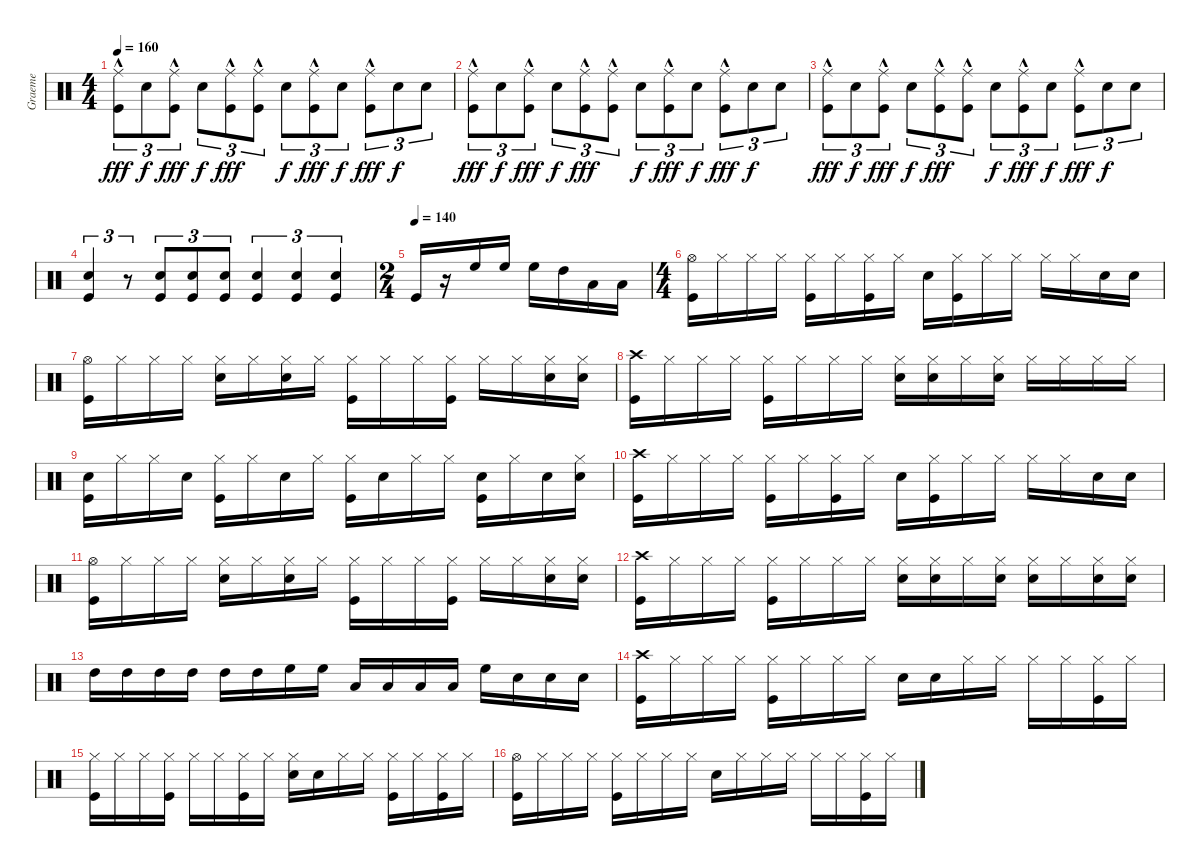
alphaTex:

\track ("Graeme" "Graeme") {instrument percussion}
\staff {score}
\articulation defaults
\ts (4 4)
\tempo 160
\clef neutral
\ks c
("Ride (middle)"{hac} "Kick (hit)").8{tu (3 2) dy fff} "Snare (hit) 2".8{tu (3 2) dy f} ("Ride (middle)"{hac} "Kick (hit)").8{tu (3 2) dy fff} "Snare (hit) 2".8{tu (3 2) dy f} ("Ride (middle)"{hac} "Kick (hit)").8{tu (3 2) dy fff} ("Ride (middle)"{hac} "Kick (hit)").8{tu (3 2)} "Snare (hit) 2".8{tu (3 2) dy f} ("Ride (middle)"{hac} "Kick (hit)").8{tu (3 2) dy fff} "Snare (hit) 2".8{tu (3 2) dy f} ("Ride (middle)"{hac} "Kick (hit)").8{tu (3 2) dy fff} "Snare (hit) 2".8{tu (3 2) dy f} "Snare (hit) 2".8{tu (3 2)} |
("Ride (middle)"{hac} "Kick (hit)").8{tu (3 2) dy fff} "Snare (hit) 2".8{tu (3 2) dy f} ("Ride (middle)"{hac} "Kick (hit)").8{tu (3 2) dy fff} "Snare (hit) 2".8{tu (3 2) dy f} ("Ride (middle)"{hac} "Kick (hit)").8{tu (3 2) dy fff} ("Ride (middle)"{hac} "Kick (hit)").8{tu (3 2)} "Snare (hit) 2".8{tu (3 2) dy f} ("Ride (middle)"{hac} "Kick (hit)").8{tu (3 2) dy fff} "Snare (hit) 2".8{tu (3 2) dy f} ("Ride (middle)"{hac} "Kick (hit)").8{tu (3 2) dy fff} "Snare (hit) 2".8{tu (3 2) dy f} "Snare (hit) 2".8{tu (3 2)} |
("Ride (middle)"{hac} "Kick (hit)").8{tu (3 2) dy fff} "Snare (hit) 2".8{tu (3 2) dy f} ("Ride (middle)"{hac} "Kick (hit)").8{tu (3 2) dy fff} "Snare (hit) 2".8{tu (3 2) dy f} ("Ride (middle)"{hac} "Kick (hit)").8{tu (3 2) dy fff} ("Ride (middle)"{hac} "Kick (hit)").8{tu (3 2)} "Snare (hit) 2".8{tu (3 2) dy f} ("Ride (middle)"{hac} "Kick (hit)").8{tu (3 2) dy fff} "Snare (hit) 2".8{tu (3 2) dy f} ("Ride (middle)"{hac} "Kick (hit)").8{tu (3 2) dy fff} "Snare (hit) 2".8{tu (3 2) dy f} "Snare (hit) 2".8{tu (3 2)} |
("Snare (hit) 2" "Kick (hit)").4{tu (3 2)} r.8{tu (3 2)} ("Snare (hit) 2" "Kick (hit)").8{tu (3 2)} ("Snare (hit) 2" "Kick (hit)").8{tu (3 2)} ("Snare (hit) 2" "Kick (hit)").8{tu (3 2)} ("Snare (hit) 2" "Kick (hit)").4{tu (3 2)} ("Snare (hit) 2" "Kick (hit)").4{tu (3 2)} ("Snare (hit) 2" "Kick (hit)").4{tu (3 2)} |
\ts (2 4)
\tempo (140)
"Kick (hit)".16 r.16 "High Floor Tom (hit)".16 "High Floor Tom (hit)".16 "High Floor Tom (hit)".16 "High Tom (hit)".16 "Low Floor Tom (hit)".16 "Low Floor Tom (hit)".16 |
\ts (4 4)
("Hi-Hat (open)" "Kick (hit)").16 "Hi-Hat (closed)".16 "Hi-Hat (closed)".16 "Hi-Hat (closed)".16 ("Hi-Hat (closed)" "Kick (hit)").16 "Hi-Hat (closed)".16 ("Hi-Hat (closed)" "Kick (hit)").16 "Hi-Hat (closed)".16 "Snare (hit) 2".16 ("Hi-Hat (closed)" "Kick (hit)").16 "Hi-Hat (closed)".16 "Hi-Hat (closed)".16 "Hi-Hat (closed)".16 "Hi-Hat (closed)".16 "Snare (hit) 2".16 "Snare (hit) 2".16 |
("Hi-Hat (open)" "Kick (hit)").16 "Hi-Hat (closed)".16 "Hi-Hat (closed)".16 "Hi-Hat (closed)".16 ("Hi-Hat (closed)" "Snare (hit) 2").16 "Hi-Hat (closed)".16 ("Hi-Hat (closed)" "Snare (hit) 2").16 "Hi-Hat (closed)".16 ("Hi-Hat (closed)" "Kick (hit)").16 "Hi-Hat (closed)".16 "Hi-Hat (closed)".16 ("Hi-Hat (closed)" "Kick (hit)").16 "Hi-Hat (closed)".16 "Hi-Hat (closed)".16 ("Hi-Hat (closed)" "Snare (hit) 2").16 ("Hi-Hat (closed)" "Snare (hit) 2").16 |
("Crash high (hit)" "Kick (hit)").16 "Hi-Hat (closed)".16 "Hi-Hat (closed)".16 "Hi-Hat (closed)".16 ("Hi-Hat (closed)" "Kick (hit)").16 "Hi-Hat (closed)".16 "Hi-Hat (closed)".16 "Hi-Hat (closed)".16 ("Hi-Hat (closed)" "Snare (hit) 2").16 ("Hi-Hat (closed)" "Snare (hit) 2").16 "Hi-Hat (closed)".16 ("Hi-Hat (closed)" "Snare (hit) 2").16 "Hi-Hat (closed)".16 "Hi-Hat (closed)".16 "Hi-Hat (closed)".16 "Hi-Hat (closed)".16 |
("Snare (hit) 2" "Kick (hit)").16 "Hi-Hat (closed)".16 "Hi-Hat (closed)".16 "Snare (hit) 2".16 ("Hi-Hat (closed)" "Kick (hit)").16 "Hi-Hat (closed)".16 "Snare (hit) 2".16 "Hi-Hat (closed)".16 ("Hi-Hat (closed)" "Kick (hit)").16 "Snare (hit) 2".16 "Hi-Hat (closed)".16 "Hi-Hat (closed)".16 ("Snare (hit) 2" "Kick (hit)").16 "Hi-Hat (closed)".16 "Snare (hit) 2".16 ("Hi-Hat (closed)" "Snare (hit) 2").16 |
("Crash high (hit)" "Kick (hit)").16 "Hi-Hat (closed)".16 "Hi-Hat (closed)".16 "Hi-Hat (closed)".16 ("Hi-Hat (closed)" "Kick (hit)").16 "Hi-Hat (closed)".16 ("Hi-Hat (closed)" "Kick (hit)").16 "Hi-Hat (closed)".16 "Snare (hit) 2".16 ("Hi-Hat (closed)" "Kick (hit)").16 "Hi-Hat (closed)".16 "Hi-Hat (closed)".16 "Hi-Hat (closed)".16 "Hi-Hat (closed)".16 "Snare (hit) 2".16 "Snare (hit) 2".16 |
("Hi-Hat (open)" "Kick (hit)").16 "Hi-Hat (closed)".16 "Hi-Hat (closed)".16 "Hi-Hat (closed)".16 ("Hi-Hat (closed)" "Snare (hit) 2").16 "Hi-Hat (closed)".16 ("Hi-Hat (closed)" "Snare (hit) 2").16 "Hi-Hat (closed)".16 ("Hi-Hat (closed)" "Kick (hit)").16 "Hi-Hat (closed)".16 "Hi-Hat (closed)".16 ("Hi-Hat (closed)" "Kick (hit)").16 "Hi-Hat (closed)".16 "Hi-Hat (closed)".16 ("Hi-Hat (closed)" "Snare (hit) 2").16 ("Hi-Hat (closed)" "Snare (hit) 2").16 |
("Crash high (hit)" "Kick (hit)").16 "Hi-Hat (closed)".16 "Hi-Hat (closed)".16 "Hi-Hat (closed)".16 ("Hi-Hat (closed)" "Kick (hit)").16 "Hi-Hat (closed)".16 "Hi-Hat (closed)".16 "Hi-Hat (closed)".16 ("Hi-Hat (closed)" "Snare (hit) 2").16 ("Hi-Hat (closed)" "Snare (hit) 2").16 "Hi-Hat (closed)".16 ("Hi-Hat (closed)" "Snare (hit) 2").16 ("Hi-Hat (closed)" "Snare (hit) 2").16 "Hi-Hat (closed)".16 ("Hi-Hat (closed)" "Snare (hit) 2").16 ("Hi-Hat (closed)" "Snare (hit) 2").16 |
"High Tom (hit)".16 "High Tom (hit)".16 "High Tom (hit)".16 "High Tom (hit)".16 "High Tom (hit)".16 "High Tom (hit)".16 "High Floor Tom (hit)".16 "High Floor Tom (hit)".16 "Low Floor Tom (hit)".16 "Low Floor Tom (hit)".16 "Low Floor Tom (hit)".16 "Low Floor Tom (hit)".16 "High Floor Tom (hit)".16 "Snare (hit) 2".16 "Snare (hit) 2".16 "Snare (hit) 2".16 |
("Crash high (hit)" "Kick (hit)").16 "Hi-Hat (closed)".16 "Hi-Hat (closed)".16 "Hi-Hat (closed)".16 ("Hi-Hat (closed)" "Kick (hit)").16 "Hi-Hat (closed)".16 "Hi-Hat (closed)".16 "Hi-Hat (closed)".16 "Snare (hit) 2".16 "Snare (hit) 2".16 "Hi-Hat (closed)".16 "Hi-Hat (closed)".16 "Hi-Hat (closed)".16 "Hi-Hat (closed)".16 ("Hi-Hat (closed)" "Kick (hit)").16 "Hi-Hat (closed)".16 |
("Hi-Hat (closed)" "Kick (hit)").16 "Hi-Hat (closed)".16 "Hi-Hat (closed)".16 ("Hi-Hat (closed)" "Kick (hit)").16 "Hi-Hat (closed)".16 "Hi-Hat (closed)".16 ("Hi-Hat (closed)" "Kick (hit)").16 "Hi-Hat (closed)".16 ("Hi-Hat (closed)" "Snare (hit) 2").16 "Snare (hit) 2".16 "Hi-Hat (closed)".16 "Hi-Hat (closed)".16 ("Hi-Hat (closed)" "Kick (hit)").16 "Hi-Hat (closed)".16 ("Hi-Hat (closed)" "Kick (hit)").16 "Hi-Hat (closed)".16 |
("Hi-Hat (open)" "Kick (hit)").16 "Hi-Hat (closed)".16 "Hi-Hat (closed)".16 "Hi-Hat (closed)".16 ("Hi-Hat (closed)" "Kick (hit)").16 "Hi-Hat (closed)".16 "Hi-Hat (closed)".16 "Hi-Hat (closed)".16 "Snare (hit) 2".16 "Hi-Hat (closed)".16 "Hi-Hat (closed)".16 "Hi-Hat (closed)".16 "Hi-Hat (closed)".16 "Hi-Hat (closed)".16 ("Hi-Hat (closed)" "Kick (hit)").16 "Hi-Hat (closed)".16
